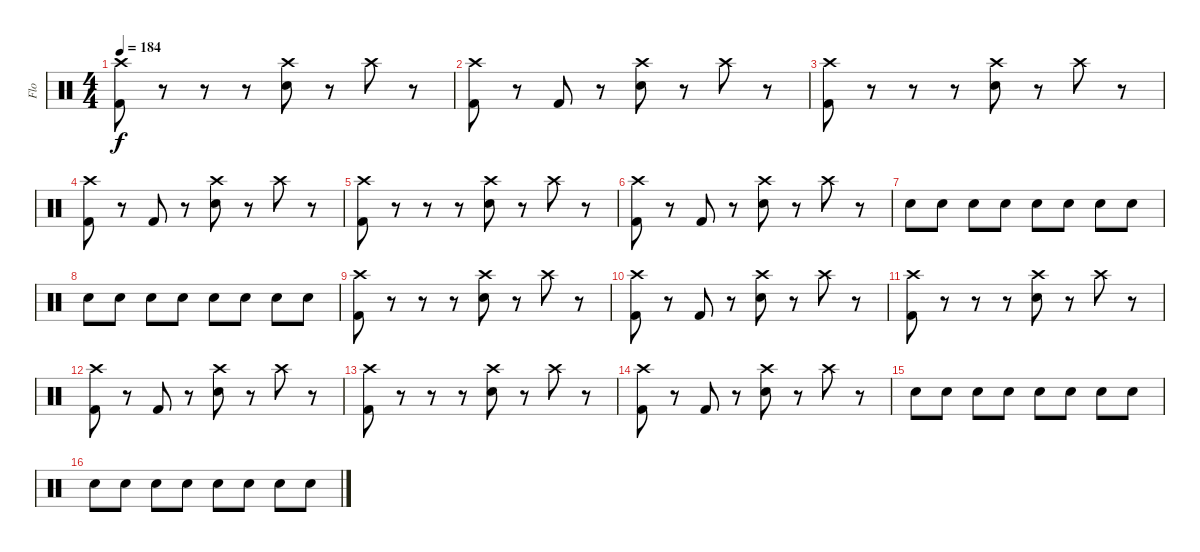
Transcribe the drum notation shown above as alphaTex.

\track ("Flo" "Flo") {instrument percussion}
\staff {score}
\articulation defaults
\ts (4 4)
\tempo 184
\clef neutral
\ks c
("Crash high (hit)" "Kick (hit) 2").8{dy f} r.8 r.8 r.8 ("Crash high (hit)" "Electric Snare (hit)").8 r.8 "Crash high (hit)".8 r.8 |
("Crash high (hit)" "Kick (hit) 2").8 r.8 "Kick (hit) 2".8 r.8 ("Crash high (hit)" "Electric Snare (hit)").8 r.8 "Crash high (hit)".8 r.8 |
("Crash high (hit)" "Kick (hit) 2").8 r.8 r.8 r.8 ("Crash high (hit)" "Electric Snare (hit)").8 r.8 "Crash high (hit)".8 r.8 |
("Crash high (hit)" "Kick (hit) 2").8 r.8 "Kick (hit) 2".8 r.8 ("Crash high (hit)" "Electric Snare (hit)").8 r.8 "Crash high (hit)".8 r.8 |
("Crash high (hit)" "Kick (hit) 2").8 r.8 r.8 r.8 ("Crash high (hit)" "Electric Snare (hit)").8 r.8 "Crash high (hit)".8 r.8 |
("Crash high (hit)" "Kick (hit) 2").8 r.8 "Kick (hit) 2".8 r.8 ("Crash high (hit)" "Electric Snare (hit)").8 r.8 "Crash high (hit)".8 r.8 |
"Electric Snare (hit)".8 "Electric Snare (hit)".8 "Electric Snare (hit)".8 "Electric Snare (hit)".8 "Electric Snare (hit)".8 "Electric Snare (hit)".8 "Electric Snare (hit)".8 "Electric Snare (hit)".8 |
"Electric Snare (hit)".8 "Electric Snare (hit)".8 "Electric Snare (hit)".8 "Electric Snare (hit)".8 "Electric Snare (hit)".8 "Electric Snare (hit)".8 "Electric Snare (hit)".8 "Electric Snare (hit)".8 |
("Crash high (hit)" "Kick (hit) 2").8 r.8 r.8 r.8 ("Crash high (hit)" "Electric Snare (hit)").8 r.8 "Crash high (hit)".8 r.8 |
("Crash high (hit)" "Kick (hit) 2").8 r.8 "Kick (hit) 2".8 r.8 ("Crash high (hit)" "Electric Snare (hit)").8 r.8 "Crash high (hit)".8 r.8 |
("Crash high (hit)" "Kick (hit) 2").8 r.8 r.8 r.8 ("Crash high (hit)" "Electric Snare (hit)").8 r.8 "Crash high (hit)".8 r.8 |
("Crash high (hit)" "Kick (hit) 2").8 r.8 "Kick (hit) 2".8 r.8 ("Crash high (hit)" "Electric Snare (hit)").8 r.8 "Crash high (hit)".8 r.8 |
("Crash high (hit)" "Kick (hit) 2").8 r.8 r.8 r.8 ("Crash high (hit)" "Electric Snare (hit)").8 r.8 "Crash high (hit)".8 r.8 |
("Crash high (hit)" "Kick (hit) 2").8 r.8 "Kick (hit) 2".8 r.8 ("Crash high (hit)" "Electric Snare (hit)").8 r.8 "Crash high (hit)".8 r.8 |
"Electric Snare (hit)".8 "Electric Snare (hit)".8 "Electric Snare (hit)".8 "Electric Snare (hit)".8 "Electric Snare (hit)".8 "Electric Snare (hit)".8 "Electric Snare (hit)".8 "Electric Snare (hit)".8 |
"Electric Snare (hit)".8 "Electric Snare (hit)".8 "Electric Snare (hit)".8 "Electric Snare (hit)".8 "Electric Snare (hit)".8 "Electric Snare (hit)".8 "Electric Snare (hit)".8 "Electric Snare (hit)".8
